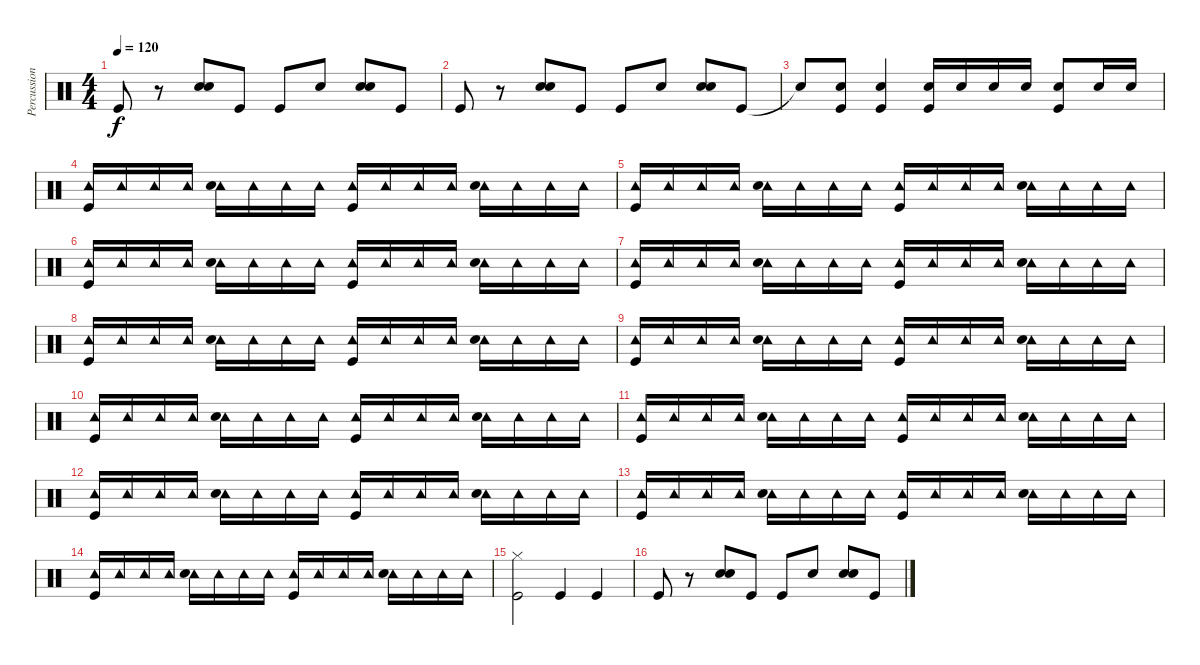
\track ("Percussion" "Percussion") {instrument percussion}
\staff {score}
\articulation defaults
\ts (4 4)
\tempo 120
\clef neutral
\ks c "Kick (hit)".8{dy f}
r.8 ("Hand Clap (hit)" "Snare (hit) 2").8 "Kick (hit)".8 "Kick (hit)".8 "Hand Clap (hit)".8 ("Hand Clap (hit)" "Snare (hit) 2").8 "Kick (hit)".8 |
"Kick (hit)".8 r.8 ("Hand Clap (hit)" "Snare (hit) 2").8 "Kick (hit)".8 "Kick (hit)".8 "Hand Clap (hit)".8 ("Hand Clap (hit)" "Snare (hit) 2").8 "Kick (hit)".8 |
"Snare (hit)"{t}.8 ("Snare (hit) 2" "Kick (hit)").8 ("Snare (hit) 2" "Kick (hit)").4 ("Snare (hit) 2" "Kick (hit)").16 "Snare (hit) 2".16 "Snare (hit) 2".16 "Snare (hit) 2".16 ("Snare (hit) 2" "Kick (hit)").8 "Snare (hit) 2".16 "Snare (hit) 2".16 |
("Tambourine (hit)" "Kick (hit)").16 "Tambourine (hit)".16 "Tambourine (hit)".16 "Tambourine (hit)".16 ("Tambourine (hit)" "Snare (hit) 2").16 "Tambourine (hit)".16 "Tambourine (hit)".16 "Tambourine (hit)".16 ("Tambourine (hit)" "Kick (hit)").16 "Tambourine (hit)".16 "Tambourine (hit)".16 "Tambourine (hit)".16 ("Tambourine (hit)" "Snare (hit) 2").16 "Tambourine (hit)".16 "Tambourine (hit)".16 "Tambourine (hit)".16 |
("Tambourine (hit)" "Kick (hit)").16 "Tambourine (hit)".16 "Tambourine (hit)".16 "Tambourine (hit)".16 ("Tambourine (hit)" "Snare (hit) 2").16 "Tambourine (hit)".16 "Tambourine (hit)".16 "Tambourine (hit)".16 ("Tambourine (hit)" "Kick (hit)").16 "Tambourine (hit)".16 "Tambourine (hit)".16 "Tambourine (hit)".16 ("Tambourine (hit)" "Snare (hit) 2").16 "Tambourine (hit)".16 "Tambourine (hit)".16 "Tambourine (hit)".16 |
("Tambourine (hit)" "Kick (hit)").16 "Tambourine (hit)".16 "Tambourine (hit)".16 "Tambourine (hit)".16 ("Tambourine (hit)" "Snare (hit) 2").16 "Tambourine (hit)".16 "Tambourine (hit)".16 "Tambourine (hit)".16 ("Tambourine (hit)" "Kick (hit)").16 "Tambourine (hit)".16 "Tambourine (hit)".16 "Tambourine (hit)".16 ("Tambourine (hit)" "Snare (hit) 2").16 "Tambourine (hit)".16 "Tambourine (hit)".16 "Tambourine (hit)".16 |
("Tambourine (hit)" "Kick (hit)").16 "Tambourine (hit)".16 "Tambourine (hit)".16 "Tambourine (hit)".16 ("Tambourine (hit)" "Snare (hit) 2").16 "Tambourine (hit)".16 "Tambourine (hit)".16 "Tambourine (hit)".16 ("Tambourine (hit)" "Kick (hit)").16 "Tambourine (hit)".16 "Tambourine (hit)".16 "Tambourine (hit)".16 ("Tambourine (hit)" "Snare (hit) 2").16 "Tambourine (hit)".16 "Tambourine (hit)".16 "Tambourine (hit)".16 |
("Tambourine (hit)" "Kick (hit)").16 "Tambourine (hit)".16 "Tambourine (hit)".16 "Tambourine (hit)".16 ("Tambourine (hit)" "Snare (hit) 2").16 "Tambourine (hit)".16 "Tambourine (hit)".16 "Tambourine (hit)".16 ("Tambourine (hit)" "Kick (hit)").16 "Tambourine (hit)".16 "Tambourine (hit)".16 "Tambourine (hit)".16 ("Tambourine (hit)" "Snare (hit) 2").16 "Tambourine (hit)".16 "Tambourine (hit)".16 "Tambourine (hit)".16 |
("Tambourine (hit)" "Kick (hit)").16 "Tambourine (hit)".16 "Tambourine (hit)".16 "Tambourine (hit)".16 ("Tambourine (hit)" "Snare (hit) 2").16 "Tambourine (hit)".16 "Tambourine (hit)".16 "Tambourine (hit)".16 ("Tambourine (hit)" "Kick (hit)").16 "Tambourine (hit)".16 "Tambourine (hit)".16 "Tambourine (hit)".16 ("Tambourine (hit)" "Snare (hit) 2").16 "Tambourine (hit)".16 "Tambourine (hit)".16 "Tambourine (hit)".16 |
("Tambourine (hit)" "Kick (hit)").16 "Tambourine (hit)".16 "Tambourine (hit)".16 "Tambourine (hit)".16 ("Tambourine (hit)" "Snare (hit) 2").16 "Tambourine (hit)".16 "Tambourine (hit)".16 "Tambourine (hit)".16 ("Tambourine (hit)" "Kick (hit)").16 "Tambourine (hit)".16 "Tambourine (hit)".16 "Tambourine (hit)".16 ("Tambourine (hit)" "Snare (hit) 2").16 "Tambourine (hit)".16 "Tambourine (hit)".16 "Tambourine (hit)".16 |
("Tambourine (hit)" "Kick (hit)").16 "Tambourine (hit)".16 "Tambourine (hit)".16 "Tambourine (hit)".16 ("Tambourine (hit)" "Snare (hit) 2").16 "Tambourine (hit)".16 "Tambourine (hit)".16 "Tambourine (hit)".16 ("Tambourine (hit)" "Kick (hit)").16 "Tambourine (hit)".16 "Tambourine (hit)".16 "Tambourine (hit)".16 ("Tambourine (hit)" "Snare (hit) 2").16 "Tambourine (hit)".16 "Tambourine (hit)".16 "Tambourine (hit)".16 |
("Tambourine (hit)" "Kick (hit)").16 "Tambourine (hit)".16 "Tambourine (hit)".16 "Tambourine (hit)".16 ("Tambourine (hit)" "Snare (hit) 2").16 "Tambourine (hit)".16 "Tambourine (hit)".16 "Tambourine (hit)".16 ("Tambourine (hit)" "Kick (hit)").16 "Tambourine (hit)".16 "Tambourine (hit)".16 "Tambourine (hit)".16 ("Tambourine (hit)" "Snare (hit) 2").16 "Tambourine (hit)".16 "Tambourine (hit)".16 "Tambourine (hit)".16 |
("Tambourine (hit)" "Kick (hit)").16 "Tambourine (hit)".16 "Tambourine (hit)".16 "Tambourine (hit)".16 ("Tambourine (hit)" "Snare (hit) 2").16 "Tambourine (hit)".16 "Tambourine (hit)".16 "Tambourine (hit)".16 ("Tambourine (hit)" "Kick (hit)").16 "Tambourine (hit)".16 "Tambourine (hit)".16 "Tambourine (hit)".16 ("Tambourine (hit)" "Snare (hit) 2").16 "Tambourine (hit)".16 "Tambourine (hit)".16 "Tambourine (hit)".16 |
("Tambourine (hit)" "Kick (hit)").16 "Tambourine (hit)".16 "Tambourine (hit)".16 "Tambourine (hit)".16 ("Tambourine (hit)" "Snare (hit) 2").16 "Tambourine (hit)".16 "Tambourine (hit)".16 "Tambourine (hit)".16 ("Tambourine (hit)" "Kick (hit)").16 "Tambourine (hit)".16 "Tambourine (hit)".16 "Tambourine (hit)".16 ("Tambourine (hit)" "Snare (hit) 2").16 "Tambourine (hit)".16 "Tambourine (hit)".16 "Tambourine (hit)".16 |
("Hi-Hat (closed)" "Kick (hit)").2 "Kick (hit)".4 "Kick (hit)".4 |
"Kick (hit)".8 r.8 ("Hand Clap (hit)" "Snare (hit) 2").8 "Kick (hit)".8 "Kick (hit)".8 "Hand Clap (hit)".8 ("Hand Clap (hit)" "Snare (hit) 2").8 "Kick (hit)".8
